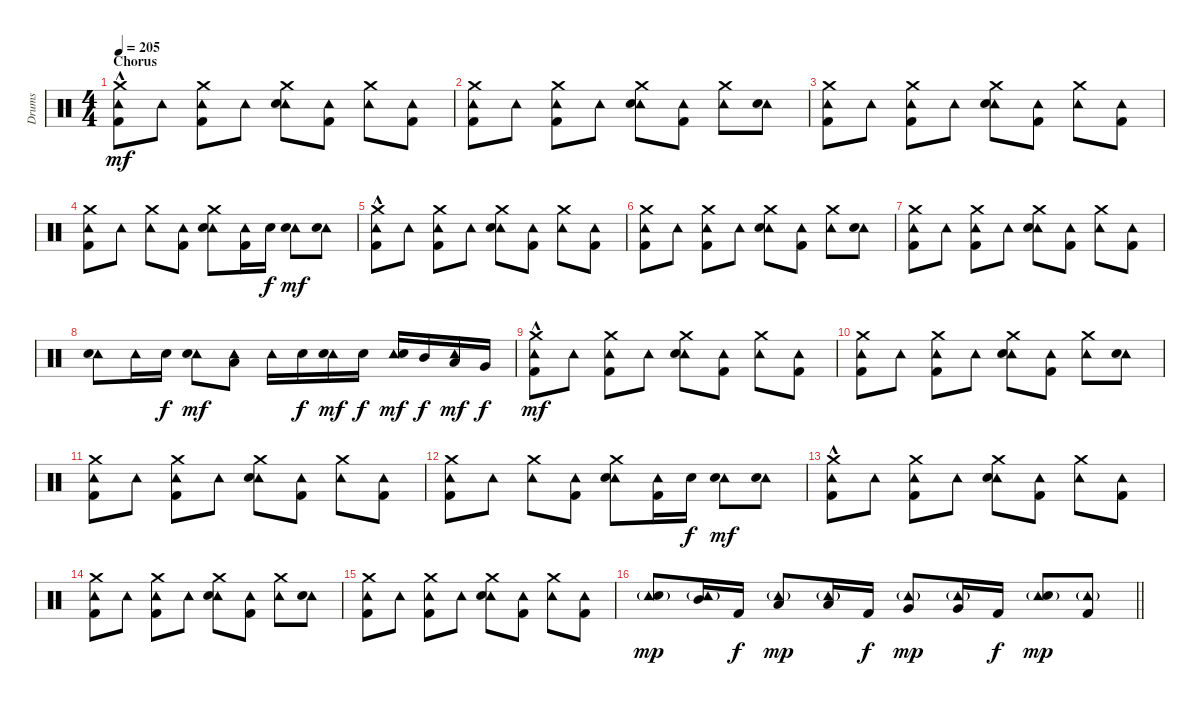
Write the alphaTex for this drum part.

\track ("Drums" "Drums") {instrument percussion}
\staff {score}
\articulation defaults
\ts (4 4)
\section ("" "Chorus")
\tempo 205
\clef neutral
\ks c
("Crash medium (hit)"{hac} "Tambourine (hit)" "Kick (hit) 2").8{dy mf} "Tambourine (hit)".8 ("Crash medium (hit)" "Tambourine (hit)" "Kick (hit) 2").8 "Tambourine (hit)".8 ("Crash medium (hit)" "Tambourine (hit)" "Electric Snare (hit)").8 ("Tambourine (hit)" "Kick (hit) 2").8 ("Crash medium (hit)" "Tambourine (hit)").8 ("Tambourine (hit)" "Kick (hit) 2").8 |
("Crash medium (hit)" "Tambourine (hit)" "Kick (hit) 2").8 "Tambourine (hit)".8 ("Crash medium (hit)" "Tambourine (hit)" "Kick (hit) 2").8 "Tambourine (hit)".8 ("Crash medium (hit)" "Tambourine (hit)" "Electric Snare (hit)").8 ("Tambourine (hit)" "Kick (hit) 2").8 ("Crash medium (hit)" "Tambourine (hit)").8 ("Tambourine (hit)" "Electric Snare (hit)").8 |
("Crash medium (hit)" "Tambourine (hit)" "Kick (hit) 2").8 "Tambourine (hit)".8 ("Crash medium (hit)" "Tambourine (hit)" "Kick (hit) 2").8 "Tambourine (hit)".8 ("Crash medium (hit)" "Tambourine (hit)" "Electric Snare (hit)").8 ("Tambourine (hit)" "Kick (hit) 2").8 ("Crash medium (hit)" "Tambourine (hit)").8 ("Tambourine (hit)" "Kick (hit) 2").8 |
("Crash medium (hit)" "Tambourine (hit)" "Kick (hit) 2").8 "Tambourine (hit)".8 ("Crash medium (hit)" "Tambourine (hit)").8 ("Tambourine (hit)" "Kick (hit) 2").8 ("Crash medium (hit)" "Tambourine (hit)" "Electric Snare (hit)").8 ("Tambourine (hit)" "Kick (hit) 2").16 "Electric Snare (hit)".16{dy f} ("Tambourine (hit)" "Electric Snare (hit)").8{dy mf} ("Tambourine (hit)" "Electric Snare (hit)").8 |
("Crash medium (hit)"{hac} "Tambourine (hit)" "Kick (hit) 2").8 "Tambourine (hit)".8 ("Crash medium (hit)" "Tambourine (hit)" "Kick (hit) 2").8 "Tambourine (hit)".8 ("Crash medium (hit)" "Tambourine (hit)" "Electric Snare (hit)").8 ("Tambourine (hit)" "Kick (hit) 2").8 ("Crash medium (hit)" "Tambourine (hit)").8 ("Tambourine (hit)" "Kick (hit) 2").8 |
("Crash medium (hit)" "Tambourine (hit)" "Kick (hit) 2").8 "Tambourine (hit)".8 ("Crash medium (hit)" "Tambourine (hit)" "Kick (hit) 2").8 "Tambourine (hit)".8 ("Crash medium (hit)" "Tambourine (hit)" "Electric Snare (hit)").8 ("Tambourine (hit)" "Kick (hit) 2").8 ("Crash medium (hit)" "Tambourine (hit)").8 ("Tambourine (hit)" "Electric Snare (hit)").8 |
("Crash medium (hit)" "Tambourine (hit)" "Kick (hit) 2").8 "Tambourine (hit)".8 ("Crash medium (hit)" "Tambourine (hit)" "Kick (hit) 2").8 "Tambourine (hit)".8 ("Crash medium (hit)" "Tambourine (hit)" "Electric Snare (hit)").8 ("Tambourine (hit)" "Kick (hit) 2").8 ("Crash medium (hit)" "Tambourine (hit)").8 ("Tambourine (hit)" "Kick (hit) 2").8 |
("Tambourine (hit)" "Electric Snare (hit)").8 "Tambourine (hit)".16 "Electric Snare (hit)".16{dy f} ("Tambourine (hit)" "Electric Snare (hit)").8{dy mf} ("Tambourine (hit)" "Low Tom (hit)").8 "Tambourine (hit)".16 "Electric Snare (hit)".16{dy f} ("Tambourine (hit)" "Electric Snare (hit)").16{dy mf} "Electric Snare (hit)".16{dy f} ("Tambourine (hit)" "Electric Snare (hit)").16{dy mf} "Mid Tom (hit)".16{dy f} ("Tambourine (hit)" "Low Tom (hit)").16{dy mf} "Very Low Tom (hit)".16{dy f} |
("Crash medium (hit)"{hac} "Tambourine (hit)" "Kick (hit) 2").8{dy mf} "Tambourine (hit)".8 ("Crash medium (hit)" "Tambourine (hit)" "Kick (hit) 2").8 "Tambourine (hit)".8 ("Crash medium (hit)" "Tambourine (hit)" "Electric Snare (hit)").8 ("Tambourine (hit)" "Kick (hit) 2").8 ("Crash medium (hit)" "Tambourine (hit)").8 ("Tambourine (hit)" "Kick (hit) 2").8 |
("Crash medium (hit)" "Tambourine (hit)" "Kick (hit) 2").8 "Tambourine (hit)".8 ("Crash medium (hit)" "Tambourine (hit)" "Kick (hit) 2").8 "Tambourine (hit)".8 ("Crash medium (hit)" "Tambourine (hit)" "Electric Snare (hit)").8 ("Tambourine (hit)" "Kick (hit) 2").8 ("Crash medium (hit)" "Tambourine (hit)").8 ("Tambourine (hit)" "Electric Snare (hit)").8 |
("Crash medium (hit)" "Tambourine (hit)" "Kick (hit) 2").8 "Tambourine (hit)".8 ("Crash medium (hit)" "Tambourine (hit)" "Kick (hit) 2").8 "Tambourine (hit)".8 ("Crash medium (hit)" "Tambourine (hit)" "Electric Snare (hit)").8 ("Tambourine (hit)" "Kick (hit) 2").8 ("Crash medium (hit)" "Tambourine (hit)").8 ("Tambourine (hit)" "Kick (hit) 2").8 |
("Crash medium (hit)" "Tambourine (hit)" "Kick (hit) 2").8 "Tambourine (hit)".8 ("Crash medium (hit)" "Tambourine (hit)").8 ("Tambourine (hit)" "Kick (hit) 2").8 ("Crash medium (hit)" "Tambourine (hit)" "Electric Snare (hit)").8 ("Tambourine (hit)" "Kick (hit) 2").16 "Electric Snare (hit)".16{dy f} ("Tambourine (hit)" "Electric Snare (hit)").8{dy mf} ("Tambourine (hit)" "Electric Snare (hit)").8 |
("Crash medium (hit)"{hac} "Tambourine (hit)" "Kick (hit) 2").8 "Tambourine (hit)".8 ("Crash medium (hit)" "Tambourine (hit)" "Kick (hit) 2").8 "Tambourine (hit)".8 ("Crash medium (hit)" "Tambourine (hit)" "Electric Snare (hit)").8 ("Tambourine (hit)" "Kick (hit) 2").8 ("Crash medium (hit)" "Tambourine (hit)").8 ("Tambourine (hit)" "Kick (hit) 2").8 |
("Crash medium (hit)" "Tambourine (hit)" "Kick (hit) 2").8 "Tambourine (hit)".8 ("Crash medium (hit)" "Tambourine (hit)" "Kick (hit) 2").8 "Tambourine (hit)".8 ("Crash medium (hit)" "Tambourine (hit)" "Electric Snare (hit)").8 ("Tambourine (hit)" "Kick (hit) 2").8 ("Crash medium (hit)" "Tambourine (hit)").8 ("Tambourine (hit)" "Electric Snare (hit)").8 |
("Crash medium (hit)" "Tambourine (hit)" "Kick (hit) 2").8 "Tambourine (hit)".8 ("Crash medium (hit)" "Tambourine (hit)" "Kick (hit) 2").8 "Tambourine (hit)".8 ("Crash medium (hit)" "Tambourine (hit)" "Electric Snare (hit)").8 ("Tambourine (hit)" "Kick (hit) 2").8 ("Crash medium (hit)" "Tambourine (hit)").8 ("Tambourine (hit)" "Kick (hit) 2").8 |
\barLineRight lightlight
("Tambourine (hit)"{g} "Electric Snare (hit)").8{dy mp} ("Tambourine (hit)"{g} "Mid Tom (hit)").16 "Kick (hit) 2".16{dy f} ("Tambourine (hit)"{g} "Low Tom (hit)").8{dy mp} ("Tambourine (hit)"{g} "Low Tom (hit)").16 "Kick (hit) 2".16{dy f} ("Tambourine (hit)"{g} "Very Low Tom (hit)").8{dy mp} ("Tambourine (hit)"{g} "Very Low Tom (hit)").16 "Kick (hit) 2".16{dy f} ("Tambourine (hit)"{g} "Electric Snare (hit)").8{dy mp} ("Tambourine (hit)"{g} "Kick (hit) 2").8
